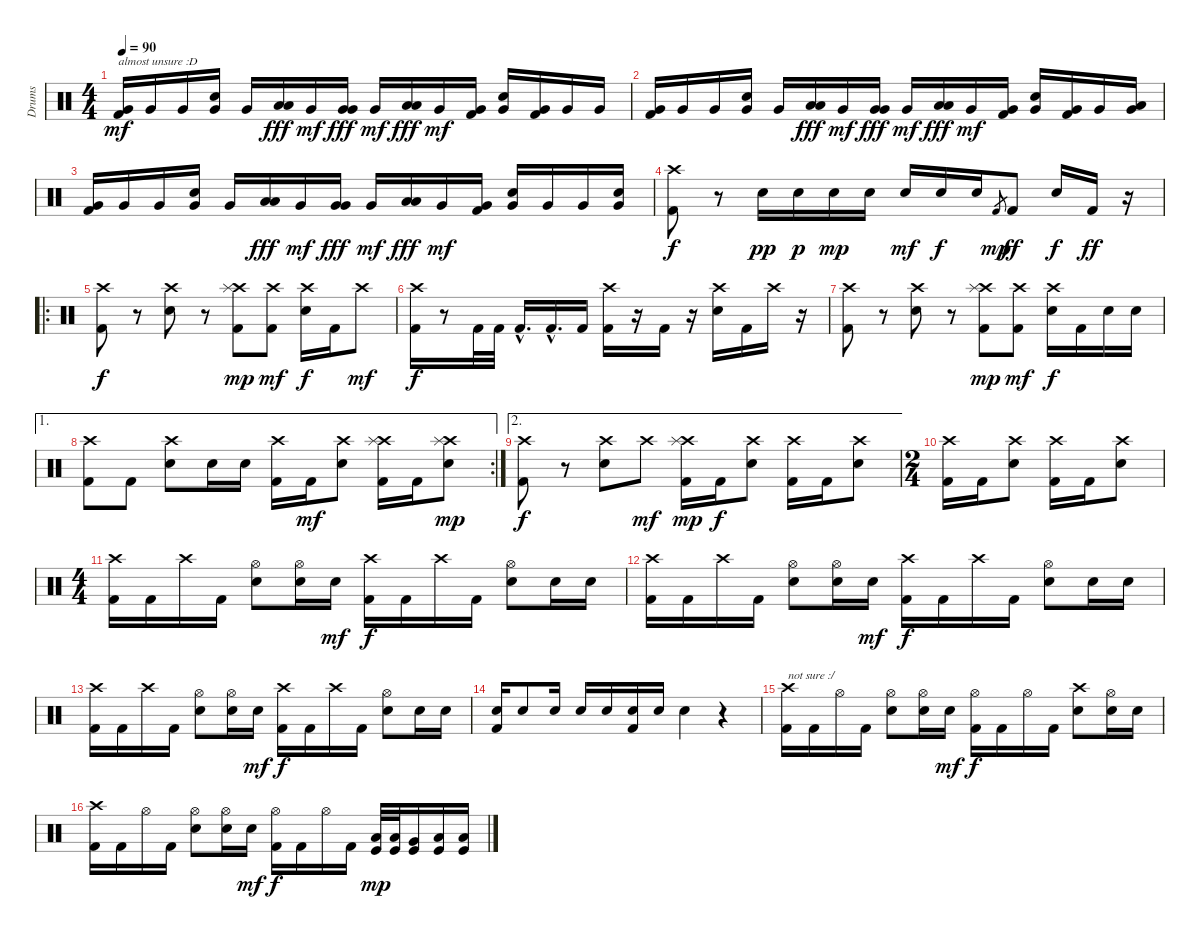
\track ("Drums" "Drums") {instrument percussion}
\staff {score}
\articulation defaults
\ts (4 4)
\tempo 90
\clef neutral
\ks c
("Very Low Tom (hit)" "Kick (hit) 2").16{txt "almost unsure :D" dy mf} "Very Low Tom (hit)".16 "Very Low Tom (hit)".16 ("Very Low Tom (hit)" "Electric Snare (hit)").16 "Very Low Tom (hit)".16 ("Low Tom (hit)" "Low Tom (hit)").16{dy fff} "Very Low Tom (hit)".16{dy mf} ("Very Low Tom (hit)" "Very Low Tom (hit)").16{dy fff} "Very Low Tom (hit)".16{dy mf} ("Low Floor Tom (hit)" "Low Floor Tom (hit)").16{dy fff} "Very Low Tom (hit)".16{dy mf} ("Very Low Tom (hit)" "Kick (hit) 2").16 ("Very Low Tom (hit)" "Electric Snare (hit)").16 ("Very Low Tom (hit)" "Kick (hit) 2").16 "Very Low Tom (hit)".16 "Very Low Tom (hit)".16 |
("Very Low Tom (hit)" "Kick (hit) 2").16 "Very Low Tom (hit)".16 "Very Low Tom (hit)".16 ("Very Low Tom (hit)" "Electric Snare (hit)").16 "Very Low Tom (hit)".16 ("Low Tom (hit)" "Low Tom (hit)").16{dy fff} "Very Low Tom (hit)".16{dy mf} ("Very Low Tom (hit)" "Very Low Tom (hit)").16{dy fff} "Very Low Tom (hit)".16{dy mf} ("Low Floor Tom (hit)" "Low Floor Tom (hit)").16{dy fff} "Very Low Tom (hit)".16{dy mf} ("Very Low Tom (hit)" "Kick (hit) 2").16 ("Very Low Tom (hit)" "Electric Snare (hit)").16 ("Very Low Tom (hit)" "Kick (hit) 2").16 "Very Low Tom (hit)".16 ("Very Low Tom (hit)" "Low Tom (hit)").16 |
("Very Low Tom (hit)" "Kick (hit) 2").16 "Very Low Tom (hit)".16 "Very Low Tom (hit)".16 ("Very Low Tom (hit)" "Electric Snare (hit)").16 "Very Low Tom (hit)".16 ("Low Tom (hit)" "Low Tom (hit)").16{dy fff} "Very Low Tom (hit)".16{dy mf} ("Very Low Tom (hit)" "Very Low Tom (hit)").16{dy fff} "Very Low Tom (hit)".16{dy mf} ("Low Floor Tom (hit)" "Low Floor Tom (hit)").16{dy fff} "Very Low Tom (hit)".16{dy mf} ("Very Low Tom (hit)" "Kick (hit) 2").16 ("Very Low Tom (hit)" "Electric Snare (hit)").16 "Very Low Tom (hit)".16 "Very Low Tom (hit)".16 ("Very Low Tom (hit)" "Electric Snare (hit)").16 |
("Crash high (hit)" "Kick (hit) 2").8{dy f} r.8 "Electric Snare (hit)".16{dy pp} "Electric Snare (hit)".16{dy p} "Electric Snare (hit)".16{dy mp} "Electric Snare (hit)".16 "Electric Snare (hit)".16{dy mf} "Electric Snare (hit)".16{dy f} "Electric Snare (hit)".16 "Kick (hit) 2".8{gr dy mp} "Kick (hit) 2".8{dy ff} "Electric Snare (hit)".16{dy f} "Kick (hit) 2".16{dy ff} r.16 |
\ro
("Crash high (hit)" "Kick (hit) 2").8{dy f} r.8 ("Crash high (hit)" "Electric Snare (hit)").8 r.8 ("Crash high (hit)" "Kick (hit) 2" "Splash (hit)").8{dy mp} ("Crash high (hit)" "Kick (hit) 2").8{dy mf} ("Crash high (hit)" "Electric Snare (hit)").16{dy f} "Kick (hit) 2".16 "Crash high (hit)".8{dy mf} |
("Crash high (hit)" "Kick (hit) 2").16{dy f} r.8 "Kick (hit) 2".32 "Kick (hit) 2".32 "Kick (hit) 2"{hac}.16{d} "Kick (hit) 2"{hac}.16{d} "Kick (hit) 2".16 ("Crash high (hit)" "Kick (hit) 2").16 r.16 "Kick (hit) 2".16 r.16 ("Crash high (hit)" "Electric Snare (hit)").16 "Kick (hit) 2".16 "Crash high (hit)".16 r.16 |
("Crash high (hit)" "Kick (hit) 2").8 r.8 ("Crash high (hit)" "Electric Snare (hit)").8 r.8 ("Crash high (hit)" "Kick (hit) 2" "Splash (hit)").8{dy mp} ("Crash high (hit)" "Kick (hit) 2").8{dy mf} ("Crash high (hit)" "Electric Snare (hit)").16{dy f} "Kick (hit) 2".16 "Electric Snare (hit)".16 "Electric Snare (hit)".16 |
\ae 1
\rc 2
("Crash high (hit)" "Kick (hit) 2").8 "Kick (hit) 2".8 ("Crash high (hit)" "Electric Snare (hit)").8 "Electric Snare (hit)".16 "Electric Snare (hit)".16 ("Crash high (hit)" "Kick (hit) 2").16 "Kick (hit) 2".16{dy mf} ("Crash high (hit)" "Electric Snare (hit)").8 ("Crash high (hit)" "Splash (hit)" "Kick (hit) 2").16 "Kick (hit) 2".16 ("Crash high (hit)" "Electric Snare (hit)" "Splash (hit)").8{dy mp} |
\ae 2
("Crash high (hit)" "Kick (hit) 2").8{dy f} r.8 ("Crash high (hit)" "Electric Snare (hit)").8 "Crash high (hit)".8{dy mf} ("Crash high (hit)" "Kick (hit) 2" "Splash (hit)").16{dy mp} "Kick (hit) 2".16{dy f} ("Crash high (hit)" "Electric Snare (hit)").8 ("Crash high (hit)" "Kick (hit) 2").16 "Kick (hit) 2".16 ("Crash high (hit)" "Electric Snare (hit)").8 |
\ts (2 4)
("Crash high (hit)" "Kick (hit) 2").16 "Kick (hit) 2".16 ("Crash high (hit)" "Electric Snare (hit)").8 ("Crash high (hit)" "Kick (hit) 2").16 "Kick (hit) 2".16 ("Crash high (hit)" "Electric Snare (hit)").8 |
\ts (4 4)
("Crash high (hit)" "Kick (hit) 2").16 "Kick (hit) 2".16 "Crash high (hit)".16 "Kick (hit) 2".16 ("Hi-Hat (open)" "Electric Snare (hit)").8 ("Hi-Hat (open)" "Electric Snare (hit)").16 "Electric Snare (hit)".16{dy mf} ("Crash high (hit)" "Kick (hit) 2").16{dy f} "Kick (hit) 2".16 "Crash high (hit)".16 "Kick (hit) 2".16 ("Hi-Hat (open)" "Electric Snare (hit)").8 "Electric Snare (hit)".16 "Electric Snare (hit)".16 |
("Crash high (hit)" "Kick (hit) 2").16 "Kick (hit) 2".16 "Crash high (hit)".16 "Kick (hit) 2".16 ("Hi-Hat (open)" "Electric Snare (hit)").8 ("Hi-Hat (open)" "Electric Snare (hit)").16 "Electric Snare (hit)".16{dy mf} ("Crash high (hit)" "Kick (hit) 2").16{dy f} "Kick (hit) 2".16 "Crash high (hit)".16 "Kick (hit) 2".16 ("Hi-Hat (open)" "Electric Snare (hit)").8 "Electric Snare (hit)".16 "Electric Snare (hit)".16 |
("Crash high (hit)" "Kick (hit) 2").16 "Kick (hit) 2".16 "Crash high (hit)".16 "Kick (hit) 2".16 ("Hi-Hat (open)" "Electric Snare (hit)").8 ("Hi-Hat (open)" "Electric Snare (hit)").16 "Electric Snare (hit)".16{dy mf} ("Crash high (hit)" "Kick (hit) 2").16{dy f} "Kick (hit) 2".16 "Crash high (hit)".16 "Kick (hit) 2".16 ("Hi-Hat (open)" "Electric Snare (hit)").8 "Electric Snare (hit)".16 "Electric Snare (hit)".16 |
("Electric Snare (hit)" "Kick (hit) 2").16 "Electric Snare (hit)".8 "Electric Snare (hit)".16 "Electric Snare (hit)".16 "Electric Snare (hit)".16 ("Electric Snare (hit)" "Kick (hit) 2").16 "Electric Snare (hit)".16 "Electric Snare (hit)".4 r.4 |
("Crash high (hit)" "Kick (hit) 2").16{txt "not sure :/"} "Kick (hit) 2".16 "Hi-Hat (open)".16 "Kick (hit) 2".16 ("Hi-Hat (open)" "Electric Snare (hit)").8 ("Hi-Hat (open)" "Electric Snare (hit)").16 "Electric Snare (hit)".16{dy mf} ("Hi-Hat (open)" "Kick (hit) 2").16{dy f} "Kick (hit) 2".16 "Hi-Hat (open)".16 "Kick (hit) 2".16 ("Crash high (hit)" "Electric Snare (hit)").8 ("Hi-Hat (open)" "Electric Snare (hit)").16 "Electric Snare (hit)".16 |
("Crash high (hit)" "Kick (hit) 2").16 "Kick (hit) 2".16 "Hi-Hat (open)".16 "Kick (hit) 2".16 ("Hi-Hat (open)" "Electric Snare (hit)").8 ("Hi-Hat (open)" "Electric Snare (hit)").16 "Electric Snare (hit)".16{dy mf} ("Hi-Hat (open)" "Kick (hit) 2").16{dy f} "Kick (hit) 2".16 "Hi-Hat (open)".16 "Kick (hit) 2".16 ("Low Tom (hit)" "Kick (hit)").32{dy mp} ("Low Tom (hit)" "Kick (hit)").32 ("Very Low Tom (hit)" "Kick (hit)").16 ("Low Floor Tom (hit)" "Kick (hit)").16 ("Low Floor Tom (hit)" "Kick (hit)").16
